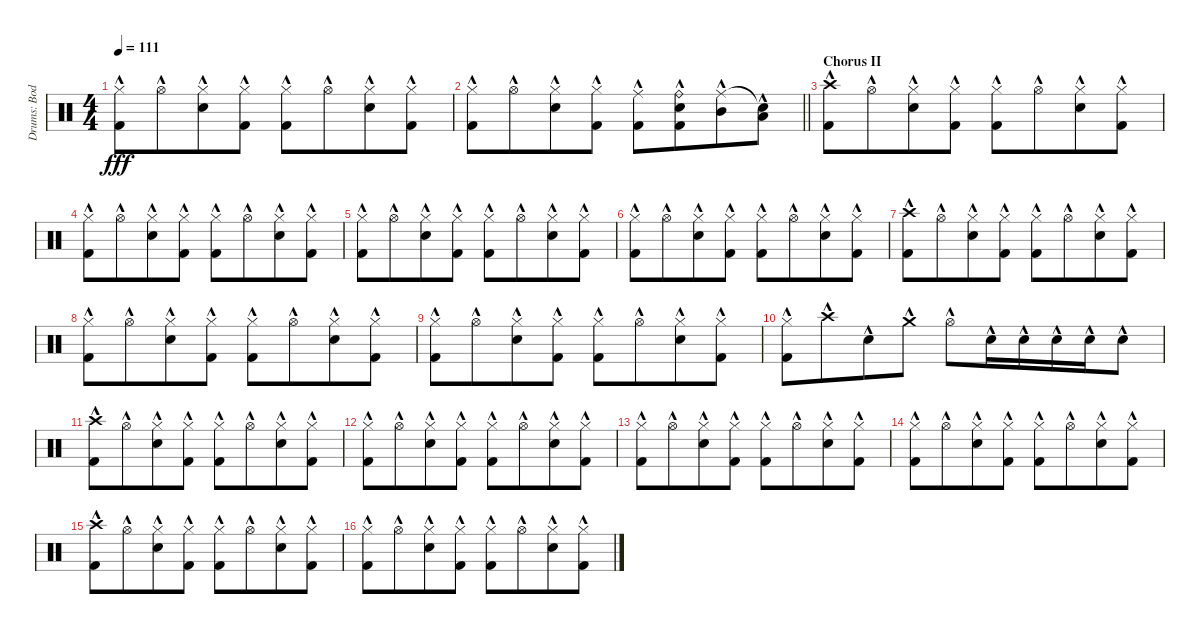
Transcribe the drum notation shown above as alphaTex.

\track ("Drums: Bodo" "Drums: Bod") {instrument percussion}
\staff {score}
\articulation defaults
\ts (4 4)
\tempo 111
\clef neutral
\ks c
("Hi-Hat (closed)"{hac} "Kick (hit) 2"{hac}).8{dy fff} "Hi-Hat (open)"{hac}.8{beam merge} ("Hi-Hat (closed)"{hac} "Electric Snare (hit)"{hac}).8 ("Hi-Hat (closed)"{hac} "Kick (hit) 2"{hac}).8 ("Hi-Hat (closed)"{hac} "Kick (hit) 2"{hac}).8 "Hi-Hat (open)"{hac}.8{beam merge} ("Hi-Hat (closed)"{hac} "Electric Snare (hit)"{hac}).8 ("Hi-Hat (closed)"{hac} "Kick (hit) 2"{hac}).8 |
\barLineRight lightlight
("Hi-Hat (closed)"{hac} "Kick (hit) 2"{hac}).8 "Hi-Hat (open)"{hac}.8{beam merge} ("Hi-Hat (closed)"{hac} "Electric Snare (hit)"{hac}).8 ("Hi-Hat (closed)"{hac} "Kick (hit) 2"{hac}).8 ("Ride (middle)"{hac} "Kick (hit) 2"{hac}).8 ("Ride (bell)"{hac} "Electric Snare (hit)"{hac} "Kick (hit) 2"{hac}).8{beam merge} ("Ride (middle)"{hac} "Mid Tom (hit)"{hac}).8 ("Snare (hit)"{t} "Low Tom (hit)"{hac}).8 |
\section ("" "Chorus II")
("Crash high (hit)"{hac} "Kick (hit) 2"{hac}).8 "Hi-Hat (open)"{hac}.8{beam merge} ("Hi-Hat (closed)"{hac} "Electric Snare (hit)"{hac}).8 ("Hi-Hat (closed)"{hac} "Kick (hit) 2"{hac}).8 ("Hi-Hat (closed)"{hac} "Kick (hit) 2"{hac}).8 "Hi-Hat (open)"{hac}.8{beam merge} ("Hi-Hat (closed)"{hac} "Electric Snare (hit)"{hac}).8 ("Hi-Hat (closed)"{hac} "Kick (hit) 2"{hac}).8 |
("Hi-Hat (closed)"{hac} "Kick (hit) 2"{hac}).8 "Hi-Hat (open)"{hac}.8{beam merge} ("Hi-Hat (closed)"{hac} "Electric Snare (hit)"{hac}).8 ("Hi-Hat (closed)"{hac} "Kick (hit) 2"{hac}).8 ("Hi-Hat (closed)"{hac} "Kick (hit) 2"{hac}).8 "Hi-Hat (open)"{hac}.8{beam merge} ("Hi-Hat (closed)"{hac} "Electric Snare (hit)"{hac}).8 ("Hi-Hat (closed)"{hac} "Kick (hit) 2"{hac}).8 |
("Hi-Hat (closed)"{hac} "Kick (hit) 2"{hac}).8 "Hi-Hat (open)"{hac}.8{beam merge} ("Hi-Hat (closed)"{hac} "Electric Snare (hit)"{hac}).8 ("Hi-Hat (closed)"{hac} "Kick (hit) 2"{hac}).8 ("Hi-Hat (closed)"{hac} "Kick (hit) 2"{hac}).8 "Hi-Hat (open)"{hac}.8{beam merge} ("Hi-Hat (closed)"{hac} "Electric Snare (hit)"{hac}).8 ("Hi-Hat (closed)"{hac} "Kick (hit) 2"{hac}).8 |
("Hi-Hat (closed)"{hac} "Kick (hit) 2"{hac}).8 "Hi-Hat (open)"{hac}.8{beam merge} ("Hi-Hat (closed)"{hac} "Electric Snare (hit)"{hac}).8 ("Hi-Hat (closed)"{hac} "Kick (hit) 2"{hac}).8 ("Hi-Hat (closed)"{hac} "Kick (hit) 2"{hac}).8 "Hi-Hat (open)"{hac}.8{beam merge} ("Hi-Hat (closed)"{hac} "Electric Snare (hit)"{hac}).8 ("Hi-Hat (closed)"{hac} "Kick (hit) 2"{hac}).8 |
("Crash high (hit)"{hac} "Kick (hit) 2"{hac}).8 "Hi-Hat (open)"{hac}.8{beam merge} ("Hi-Hat (closed)"{hac} "Electric Snare (hit)"{hac}).8 ("Hi-Hat (closed)"{hac} "Kick (hit) 2"{hac}).8 ("Hi-Hat (closed)"{hac} "Kick (hit) 2"{hac}).8 "Hi-Hat (open)"{hac}.8{beam merge} ("Hi-Hat (closed)"{hac} "Electric Snare (hit)"{hac}).8 ("Hi-Hat (closed)"{hac} "Kick (hit) 2"{hac}).8 |
("Hi-Hat (closed)"{hac} "Kick (hit) 2"{hac}).8 "Hi-Hat (open)"{hac}.8{beam merge} ("Hi-Hat (closed)"{hac} "Electric Snare (hit)"{hac}).8 ("Hi-Hat (closed)"{hac} "Kick (hit) 2"{hac}).8 ("Hi-Hat (closed)"{hac} "Kick (hit) 2"{hac}).8 "Hi-Hat (open)"{hac}.8{beam merge} ("Hi-Hat (closed)"{hac} "Electric Snare (hit)"{hac}).8 ("Hi-Hat (closed)"{hac} "Kick (hit) 2"{hac}).8 |
("Hi-Hat (closed)"{hac} "Kick (hit) 2"{hac}).8 "Hi-Hat (open)"{hac}.8{beam merge} ("Hi-Hat (closed)"{hac} "Electric Snare (hit)"{hac}).8 ("Hi-Hat (closed)"{hac} "Kick (hit) 2"{hac}).8 ("Hi-Hat (closed)"{hac} "Kick (hit) 2"{hac}).8 "Hi-Hat (open)"{hac}.8{beam merge} ("Hi-Hat (closed)"{hac} "Electric Snare (hit)"{hac}).8 ("Hi-Hat (closed)"{hac} "Kick (hit) 2"{hac}).8 |
("Hi-Hat (closed)"{hac} "Kick (hit) 2"{hac}).8{beam merge} "Crash high (hit)"{hac}.8{beam merge} "Electric Snare (hit)"{hac}.8 "Crash medium (hit)"{hac}.8 "Hi-Hat (open)"{hac}.8{beam merge} "Electric Snare (hit)"{hac}.16{beam merge} "Electric Snare (hit)"{hac}.16{beam merge} "Electric Snare (hit)"{hac}.16{beam merge} "Electric Snare (hit)"{hac}.16{beam merge} "Electric Snare (hit)"{hac}.8 |
("Crash high (hit)"{hac} "Kick (hit) 2"{hac}).8 "Hi-Hat (open)"{hac}.8{beam merge} ("Hi-Hat (closed)"{hac} "Electric Snare (hit)"{hac}).8 ("Hi-Hat (closed)"{hac} "Kick (hit) 2"{hac}).8 ("Hi-Hat (closed)"{hac} "Kick (hit) 2"{hac}).8 "Hi-Hat (open)"{hac}.8{beam merge} ("Hi-Hat (closed)"{hac} "Electric Snare (hit)"{hac}).8 ("Hi-Hat (closed)"{hac} "Kick (hit) 2"{hac}).8 |
("Hi-Hat (closed)"{hac} "Kick (hit) 2"{hac}).8 "Hi-Hat (open)"{hac}.8{beam merge} ("Hi-Hat (closed)"{hac} "Electric Snare (hit)"{hac}).8 ("Hi-Hat (closed)"{hac} "Kick (hit) 2"{hac}).8 ("Hi-Hat (closed)"{hac} "Kick (hit) 2"{hac}).8 "Hi-Hat (open)"{hac}.8{beam merge} ("Hi-Hat (closed)"{hac} "Electric Snare (hit)"{hac}).8 ("Hi-Hat (closed)"{hac} "Kick (hit) 2"{hac}).8 |
("Hi-Hat (closed)"{hac} "Kick (hit) 2"{hac}).8 "Hi-Hat (open)"{hac}.8{beam merge} ("Hi-Hat (closed)"{hac} "Electric Snare (hit)"{hac}).8 ("Hi-Hat (closed)"{hac} "Kick (hit) 2"{hac}).8 ("Hi-Hat (closed)"{hac} "Kick (hit) 2"{hac}).8 "Hi-Hat (open)"{hac}.8{beam merge} ("Hi-Hat (closed)"{hac} "Electric Snare (hit)"{hac}).8 ("Hi-Hat (closed)"{hac} "Kick (hit) 2"{hac}).8 |
("Hi-Hat (closed)"{hac} "Kick (hit) 2"{hac}).8 "Hi-Hat (open)"{hac}.8{beam merge} ("Hi-Hat (closed)"{hac} "Electric Snare (hit)"{hac}).8 ("Hi-Hat (closed)"{hac} "Kick (hit) 2"{hac}).8 ("Hi-Hat (closed)"{hac} "Kick (hit) 2"{hac}).8 "Hi-Hat (open)"{hac}.8{beam merge} ("Hi-Hat (closed)"{hac} "Electric Snare (hit)"{hac}).8 ("Hi-Hat (closed)"{hac} "Kick (hit) 2"{hac}).8 |
("Crash high (hit)"{hac} "Kick (hit) 2"{hac}).8 "Hi-Hat (open)"{hac}.8{beam merge} ("Hi-Hat (closed)"{hac} "Electric Snare (hit)"{hac}).8 ("Hi-Hat (closed)"{hac} "Kick (hit) 2"{hac}).8 ("Hi-Hat (closed)"{hac} "Kick (hit) 2"{hac}).8 "Hi-Hat (open)"{hac}.8{beam merge} ("Hi-Hat (closed)"{hac} "Electric Snare (hit)"{hac}).8 ("Hi-Hat (closed)"{hac} "Kick (hit) 2"{hac}).8 |
("Hi-Hat (closed)"{hac} "Kick (hit) 2"{hac}).8 "Hi-Hat (open)"{hac}.8{beam merge} ("Hi-Hat (closed)"{hac} "Electric Snare (hit)"{hac}).8 ("Hi-Hat (closed)"{hac} "Kick (hit) 2"{hac}).8 ("Hi-Hat (closed)"{hac} "Kick (hit) 2"{hac}).8 "Hi-Hat (open)"{hac}.8{beam merge} ("Hi-Hat (closed)"{hac} "Electric Snare (hit)"{hac}).8 ("Hi-Hat (closed)"{hac} "Kick (hit) 2"{hac}).8
